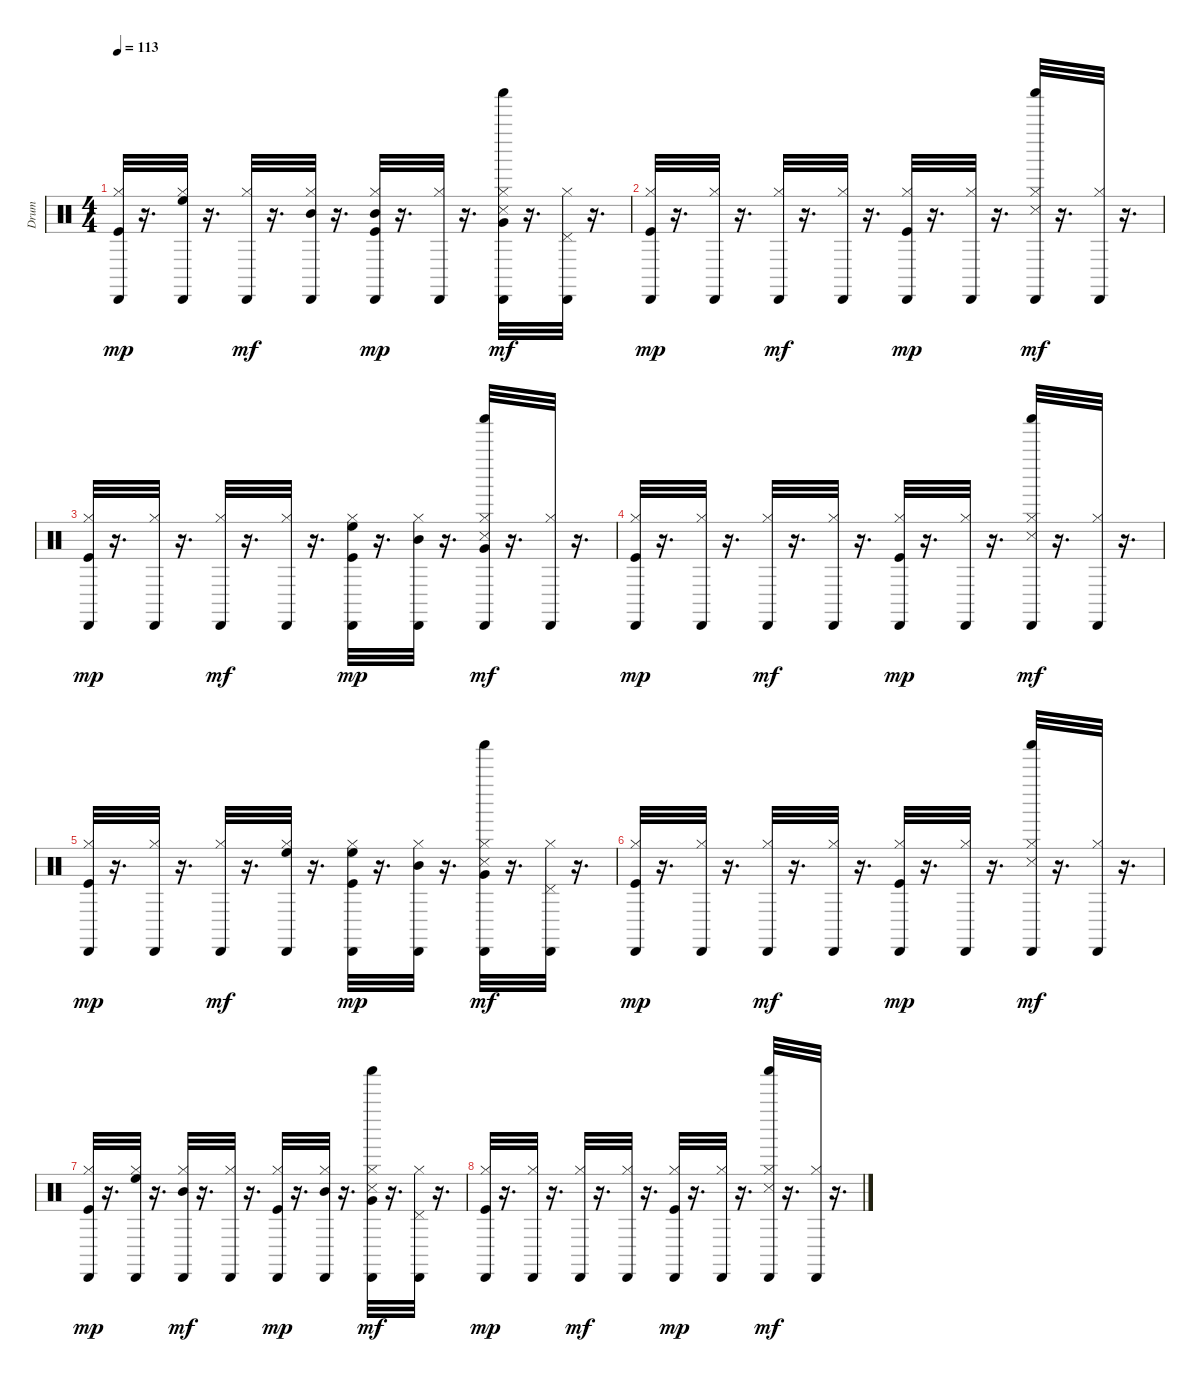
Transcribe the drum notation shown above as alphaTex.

\track ("Drum" "Drum") {instrument percussion}
\staff {score}
\articulation defaults
\ts (4 4)
\tempo 113
\clef neutral
\ks c
("Hi-Hat (closed)" "Kick (hit)" "Cabasa (hit)").32{dy mp} r.16{d} ("Hi-Hat (closed)" "High Floor Tom (hit)" "Cabasa (hit)").32 r.16{d} ("Hi-Hat (closed)" "Cabasa (hit)").32{dy mf} r.16{d} ("Hi-Hat (closed)" "Mid Tom (hit)" "Cabasa (hit)").32 r.16{d} ("Hi-Hat (closed)" "Mid Tom (hit)" "Kick (hit)" "Cabasa (hit)").32{dy mp} r.16{d} ("Hi-Hat (closed)" "Cabasa (hit)").32 r.16{d} ("Hi-Hat (closed)" "Very Low Tom (hit)" "Shaker (hit)" "Snare (side stick) 3" "Cabasa (hit)").32{dy mf} r.16{d} ("Hi-Hat (closed)" "Pedal Hi-Hat (hit)" "Cabasa (hit)").32 r.16{d} |
("Hi-Hat (closed)" "Kick (hit)" "Cabasa (hit)").32{dy mp} r.16{d} ("Hi-Hat (closed)" "Cabasa (hit)").32 r.16{d} ("Hi-Hat (closed)" "Cabasa (hit)").32{dy mf} r.16{d} ("Hi-Hat (closed)" "Cabasa (hit)").32 r.16{d} ("Hi-Hat (closed)" "Kick (hit)" "Cabasa (hit)").32{dy mp} r.16{d} ("Hi-Hat (closed)" "Cabasa (hit)").32 r.16{d} ("Hi-Hat (closed)" "Shaker (hit)" "Snare (side stick) 3" "Cabasa (hit)").32{dy mf} r.16{d} ("Hi-Hat (closed)" "Cabasa (hit)").32 r.16{d} |
("Hi-Hat (closed)" "Kick (hit)" "Cabasa (hit)").32{dy mp} r.16{d} ("Hi-Hat (closed)" "Cabasa (hit)").32 r.16{d} ("Hi-Hat (closed)" "Cabasa (hit)").32{dy mf} r.16{d} ("Hi-Hat (closed)" "Cabasa (hit)").32 r.16{d} ("Hi-Hat (closed)" "High Floor Tom (hit)" "Kick (hit)" "Cabasa (hit)").32{dy mp} r.16{d} ("Hi-Hat (closed)" "Mid Tom (hit)" "Cabasa (hit)").32 r.16{d} ("Hi-Hat (closed)" "Very Low Tom (hit)" "Shaker (hit)" "Snare (side stick) 3" "Cabasa (hit)").32{dy mf} r.16{d} ("Hi-Hat (closed)" "Cabasa (hit)").32 r.16{d} |
("Hi-Hat (closed)" "Kick (hit)" "Cabasa (hit)").32{dy mp} r.16{d} ("Hi-Hat (closed)" "Cabasa (hit)").32 r.16{d} ("Hi-Hat (closed)" "Cabasa (hit)").32{dy mf} r.16{d} ("Hi-Hat (closed)" "Cabasa (hit)").32 r.16{d} ("Hi-Hat (closed)" "Kick (hit)" "Cabasa (hit)").32{dy mp} r.16{d} ("Hi-Hat (closed)" "Cabasa (hit)").32 r.16{d} ("Hi-Hat (closed)" "Shaker (hit)" "Snare (side stick) 3" "Cabasa (hit)").32{dy mf} r.16{d} ("Hi-Hat (closed)" "Cabasa (hit)").32 r.16{d} |
("Hi-Hat (closed)" "Kick (hit)" "Cabasa (hit)").32{dy mp} r.16{d} ("Hi-Hat (closed)" "Cabasa (hit)").32 r.16{d} ("Hi-Hat (closed)" "Cabasa (hit)").32{dy mf} r.16{d} ("Hi-Hat (closed)" "High Floor Tom (hit)" "Cabasa (hit)").32 r.16{d} ("Hi-Hat (closed)" "High Floor Tom (hit)" "Kick (hit)" "Cabasa (hit)").32{dy mp} r.16{d} ("Hi-Hat (closed)" "Mid Tom (hit)" "Cabasa (hit)").32 r.16{d} ("Hi-Hat (closed)" "Very Low Tom (hit)" "Shaker (hit)" "Snare (side stick) 3" "Cabasa (hit)").32{dy mf} r.16{d} ("Hi-Hat (closed)" "Pedal Hi-Hat (hit)" "Cabasa (hit)").32 r.16{d} |
("Hi-Hat (closed)" "Kick (hit)" "Cabasa (hit)").32{dy mp} r.16{d} ("Hi-Hat (closed)" "Cabasa (hit)").32 r.16{d} ("Hi-Hat (closed)" "Cabasa (hit)").32{dy mf} r.16{d} ("Hi-Hat (closed)" "Cabasa (hit)").32 r.16{d} ("Hi-Hat (closed)" "Kick (hit)" "Cabasa (hit)").32{dy mp} r.16{d} ("Hi-Hat (closed)" "Cabasa (hit)").32 r.16{d} ("Hi-Hat (closed)" "Shaker (hit)" "Snare (side stick) 3" "Cabasa (hit)").32{dy mf} r.16{d} ("Hi-Hat (closed)" "Cabasa (hit)").32 r.16{d} |
("Hi-Hat (closed)" "Kick (hit)" "Cabasa (hit)").32{dy mp} r.16{d} ("Hi-Hat (closed)" "High Floor Tom (hit)" "Cabasa (hit)").32 r.16{d} ("Hi-Hat (closed)" "Mid Tom (hit)" "Cabasa (hit)").32{dy mf} r.16{d} ("Hi-Hat (closed)" "Cabasa (hit)").32 r.16{d} ("Hi-Hat (closed)" "Kick (hit)" "Cabasa (hit)").32{dy mp} r.16{d} ("Hi-Hat (closed)" "Mid Tom (hit)" "Cabasa (hit)").32 r.16{d} ("Hi-Hat (closed)" "Very Low Tom (hit)" "Shaker (hit)" "Snare (side stick) 3" "Cabasa (hit)").32{dy mf} r.16{d} ("Hi-Hat (closed)" "Pedal Hi-Hat (hit)" "Cabasa (hit)").32 r.16{d} |
("Hi-Hat (closed)" "Kick (hit)" "Cabasa (hit)").32{dy mp} r.16{d} ("Hi-Hat (closed)" "Cabasa (hit)").32 r.16{d} ("Hi-Hat (closed)" "Cabasa (hit)").32{dy mf} r.16{d} ("Hi-Hat (closed)" "Cabasa (hit)").32 r.16{d} ("Hi-Hat (closed)" "Kick (hit)" "Cabasa (hit)").32{dy mp} r.16{d} ("Hi-Hat (closed)" "Cabasa (hit)").32 r.16{d} ("Hi-Hat (closed)" "Shaker (hit)" "Snare (side stick) 3" "Cabasa (hit)").32{dy mf} r.16{d} ("Hi-Hat (closed)" "Cabasa (hit)").32 r.16{d}
